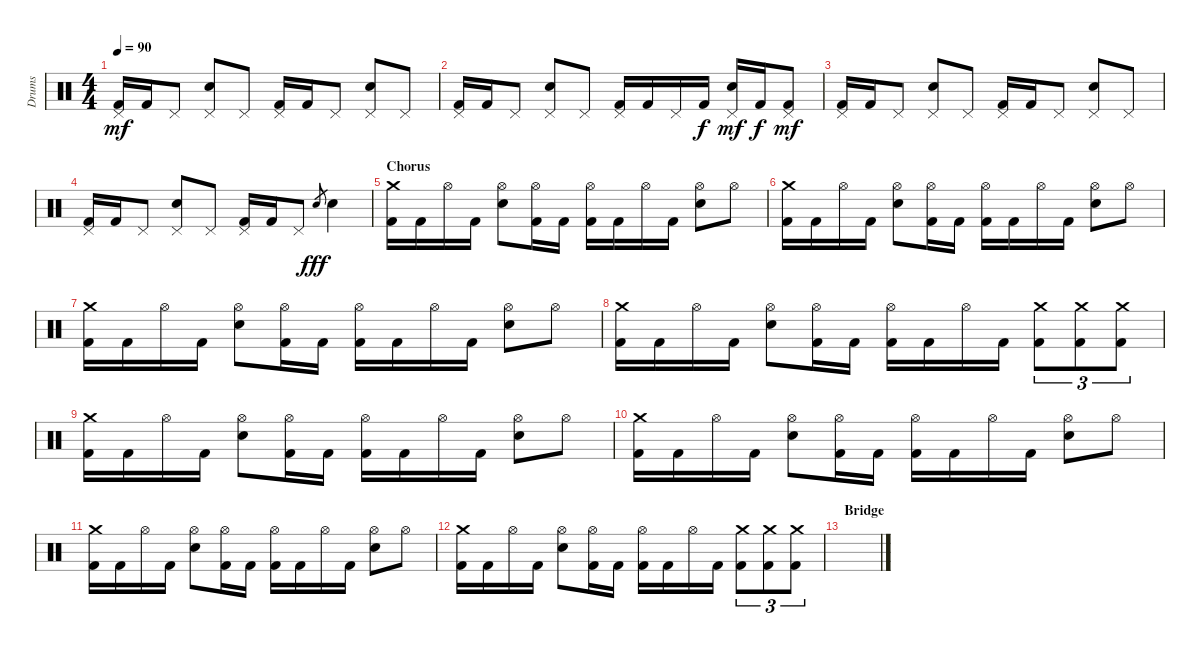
\track ("Drums" "Drums") {instrument percussion}
\staff {score}
\articulation defaults
\ts (4 4)
\tempo 90
\clef neutral
\ks c
("Pedal Hi-Hat (hit)" "Kick (hit) 2").16{dy mf} "Kick (hit) 2".16 "Pedal Hi-Hat (hit)".8 ("Pedal Hi-Hat (hit)" "Electric Snare (hit)").8 "Pedal Hi-Hat (hit)".8 ("Pedal Hi-Hat (hit)" "Kick (hit) 2").16 "Kick (hit) 2".16 "Pedal Hi-Hat (hit)".8 ("Pedal Hi-Hat (hit)" "Electric Snare (hit)").8 "Pedal Hi-Hat (hit)".8 |
("Pedal Hi-Hat (hit)" "Kick (hit) 2").16 "Kick (hit) 2".16 "Pedal Hi-Hat (hit)".8 ("Pedal Hi-Hat (hit)" "Electric Snare (hit)").8 "Pedal Hi-Hat (hit)".8 ("Pedal Hi-Hat (hit)" "Kick (hit) 2").16 "Kick (hit) 2".16 "Pedal Hi-Hat (hit)".16 "Kick (hit) 2".16{dy f} ("Pedal Hi-Hat (hit)" "Electric Snare (hit)").16{dy mf} "Kick (hit) 2".16{dy f} ("Pedal Hi-Hat (hit)" "Kick (hit) 2").8{dy mf} |
("Pedal Hi-Hat (hit)" "Kick (hit) 2").16 "Kick (hit) 2".16 "Pedal Hi-Hat (hit)".8 ("Pedal Hi-Hat (hit)" "Electric Snare (hit)").8 "Pedal Hi-Hat (hit)".8 ("Pedal Hi-Hat (hit)" "Kick (hit) 2").16 "Kick (hit) 2".16 "Pedal Hi-Hat (hit)".8 ("Pedal Hi-Hat (hit)" "Electric Snare (hit)").8 "Pedal Hi-Hat (hit)".8 |
("Pedal Hi-Hat (hit)" "Kick (hit) 2").16 "Kick (hit) 2".16 "Pedal Hi-Hat (hit)".8 ("Pedal Hi-Hat (hit)" "Electric Snare (hit)").8 "Pedal Hi-Hat (hit)".8 ("Pedal Hi-Hat (hit)" "Kick (hit) 2").16 "Kick (hit) 2".16 "Pedal Hi-Hat (hit)".8 "Electric Snare (hit)".8{gr dy fff} "Electric Snare (hit)".4 |
\section ("" "Chorus")
("Crash medium (hit)" "Kick (hit) 2").16 "Kick (hit) 2".16 "Hi-Hat (open)".16 "Kick (hit) 2".16 ("Hi-Hat (open)" "Electric Snare (hit)").8 ("Hi-Hat (open)" "Kick (hit) 2").16 "Kick (hit) 2".16 ("Hi-Hat (open)" "Kick (hit) 2").16 "Kick (hit) 2".16 "Hi-Hat (open)".16 "Kick (hit) 2".16 ("Hi-Hat (open)" "Electric Snare (hit)").8 "Hi-Hat (open)".8 |
("Crash medium (hit)" "Kick (hit) 2").16 "Kick (hit) 2".16 "Hi-Hat (open)".16 "Kick (hit) 2".16 ("Hi-Hat (open)" "Electric Snare (hit)").8 ("Hi-Hat (open)" "Kick (hit) 2").16 "Kick (hit) 2".16 ("Hi-Hat (open)" "Kick (hit) 2").16 "Kick (hit) 2".16 "Hi-Hat (open)".16 "Kick (hit) 2".16 ("Hi-Hat (open)" "Electric Snare (hit)").8 "Hi-Hat (open)".8 |
("Crash medium (hit)" "Kick (hit) 2").16 "Kick (hit) 2".16 "Hi-Hat (open)".16 "Kick (hit) 2".16 ("Hi-Hat (open)" "Electric Snare (hit)").8 ("Hi-Hat (open)" "Kick (hit) 2").16 "Kick (hit) 2".16 ("Hi-Hat (open)" "Kick (hit) 2").16 "Kick (hit) 2".16 "Hi-Hat (open)".16 "Kick (hit) 2".16 ("Hi-Hat (open)" "Electric Snare (hit)").8 "Hi-Hat (open)".8 |
("Crash medium (hit)" "Kick (hit) 2").16 "Kick (hit) 2".16 "Hi-Hat (open)".16 "Kick (hit) 2".16 ("Hi-Hat (open)" "Electric Snare (hit)").8 ("Hi-Hat (open)" "Kick (hit) 2").16 "Kick (hit) 2".16 ("Hi-Hat (open)" "Kick (hit) 2").16 "Kick (hit) 2".16 "Hi-Hat (open)".16 "Kick (hit) 2".16 ("Crash medium (hit)" "Kick (hit) 2").8{tu (3 2)} ("Crash medium (hit)" "Kick (hit) 2").8{tu (3 2)} ("Crash medium (hit)" "Kick (hit) 2").8{tu (3 2)} |
("Crash medium (hit)" "Kick (hit) 2").16 "Kick (hit) 2".16 "Hi-Hat (open)".16 "Kick (hit) 2".16 ("Hi-Hat (open)" "Electric Snare (hit)").8 ("Hi-Hat (open)" "Kick (hit) 2").16 "Kick (hit) 2".16 ("Hi-Hat (open)" "Kick (hit) 2").16 "Kick (hit) 2".16 "Hi-Hat (open)".16 "Kick (hit) 2".16 ("Hi-Hat (open)" "Electric Snare (hit)").8 "Hi-Hat (open)".8 |
("Crash medium (hit)" "Kick (hit) 2").16 "Kick (hit) 2".16 "Hi-Hat (open)".16 "Kick (hit) 2".16 ("Hi-Hat (open)" "Electric Snare (hit)").8 ("Hi-Hat (open)" "Kick (hit) 2").16 "Kick (hit) 2".16 ("Hi-Hat (open)" "Kick (hit) 2").16 "Kick (hit) 2".16 "Hi-Hat (open)".16 "Kick (hit) 2".16 ("Hi-Hat (open)" "Electric Snare (hit)").8 "Hi-Hat (open)".8 |
("Crash medium (hit)" "Kick (hit) 2").16 "Kick (hit) 2".16 "Hi-Hat (open)".16 "Kick (hit) 2".16 ("Hi-Hat (open)" "Electric Snare (hit)").8 ("Hi-Hat (open)" "Kick (hit) 2").16 "Kick (hit) 2".16 ("Hi-Hat (open)" "Kick (hit) 2").16 "Kick (hit) 2".16 "Hi-Hat (open)".16 "Kick (hit) 2".16 ("Hi-Hat (open)" "Electric Snare (hit)").8 "Hi-Hat (open)".8 |
("Crash medium (hit)" "Kick (hit) 2").16 "Kick (hit) 2".16 "Hi-Hat (open)".16 "Kick (hit) 2".16 ("Hi-Hat (open)" "Electric Snare (hit)").8 ("Hi-Hat (open)" "Kick (hit) 2").16 "Kick (hit) 2".16 ("Hi-Hat (open)" "Kick (hit) 2").16 "Kick (hit) 2".16 "Hi-Hat (open)".16 "Kick (hit) 2".16 ("Crash medium (hit)" "Kick (hit) 2").8{tu (3 2)} ("Crash medium (hit)" "Kick (hit) 2").8{tu (3 2)} ("Crash medium (hit)" "Kick (hit) 2").8{tu (3 2)} |
\section ("" "Bridge")
